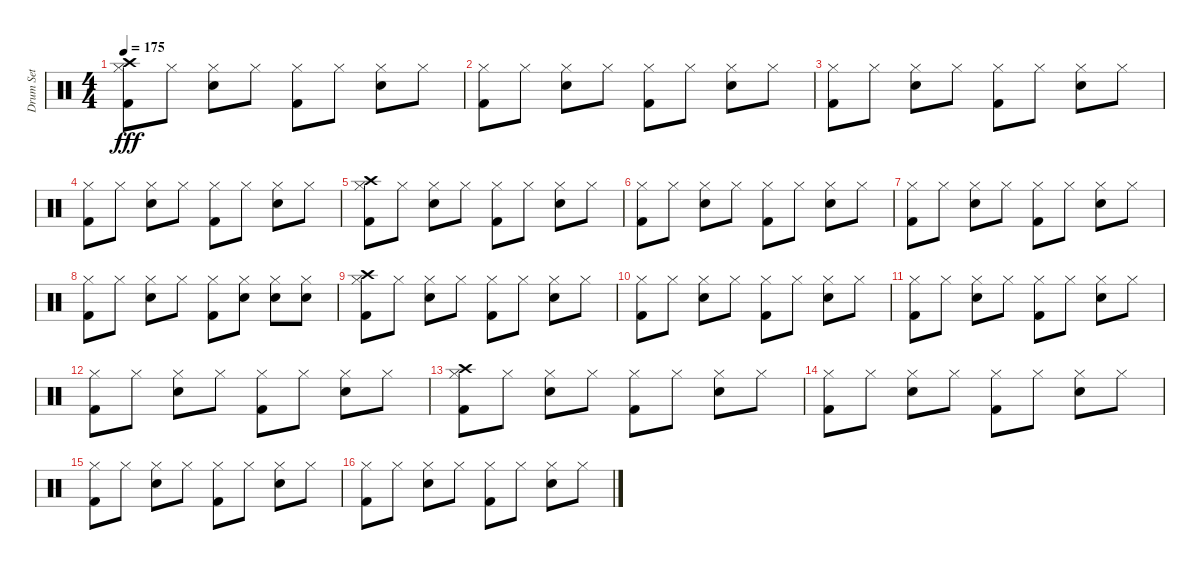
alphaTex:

\track ("Drum Set" "Drum Set") {instrument percussion}
\staff {score}
\articulation defaults
\ts (4 4)
\tempo 175
\clef neutral
\ks c
("Kick (hit) 2" "Hi-Hat (closed)" "Crash high (hit)").8{dy fff} "Hi-Hat (closed)".8 ("Electric Snare (hit)" "Hi-Hat (closed)").8 "Hi-Hat (closed)".8 ("Kick (hit) 2" "Hi-Hat (closed)").8 "Hi-Hat (closed)".8 ("Electric Snare (hit)" "Hi-Hat (closed)").8 "Hi-Hat (closed)".8 |
("Kick (hit) 2" "Hi-Hat (closed)").8 "Hi-Hat (closed)".8 ("Electric Snare (hit)" "Hi-Hat (closed)").8 "Hi-Hat (closed)".8 ("Kick (hit) 2" "Hi-Hat (closed)").8 "Hi-Hat (closed)".8 ("Electric Snare (hit)" "Hi-Hat (closed)").8 "Hi-Hat (closed)".8 |
("Kick (hit) 2" "Hi-Hat (closed)").8 "Hi-Hat (closed)".8 ("Electric Snare (hit)" "Hi-Hat (closed)").8 "Hi-Hat (closed)".8 ("Kick (hit) 2" "Hi-Hat (closed)").8 "Hi-Hat (closed)".8 ("Electric Snare (hit)" "Hi-Hat (closed)").8 "Hi-Hat (closed)".8 |
("Kick (hit) 2" "Hi-Hat (closed)").8 "Hi-Hat (closed)".8 ("Electric Snare (hit)" "Hi-Hat (closed)").8 "Hi-Hat (closed)".8 ("Kick (hit) 2" "Hi-Hat (closed)").8 "Hi-Hat (closed)".8 ("Electric Snare (hit)" "Hi-Hat (closed)").8 "Hi-Hat (closed)".8 |
("Kick (hit) 2" "Crash high (hit)" "Hi-Hat (closed)").8 "Hi-Hat (closed)".8 ("Electric Snare (hit)" "Hi-Hat (closed)").8 "Hi-Hat (closed)".8 ("Kick (hit) 2" "Hi-Hat (closed)").8 "Hi-Hat (closed)".8 ("Electric Snare (hit)" "Hi-Hat (closed)").8 "Hi-Hat (closed)".8 |
("Kick (hit) 2" "Hi-Hat (closed)").8 "Hi-Hat (closed)".8 ("Electric Snare (hit)" "Hi-Hat (closed)").8 "Hi-Hat (closed)".8 ("Kick (hit) 2" "Hi-Hat (closed)").8 "Hi-Hat (closed)".8 ("Electric Snare (hit)" "Hi-Hat (closed)").8 "Hi-Hat (closed)".8 |
("Kick (hit) 2" "Hi-Hat (closed)").8 "Hi-Hat (closed)".8 ("Electric Snare (hit)" "Hi-Hat (closed)").8 "Hi-Hat (closed)".8 ("Kick (hit) 2" "Hi-Hat (closed)").8 "Hi-Hat (closed)".8 ("Electric Snare (hit)" "Hi-Hat (closed)").8 "Hi-Hat (closed)".8 |
("Kick (hit) 2" "Hi-Hat (closed)").8 "Hi-Hat (closed)".8 ("Electric Snare (hit)" "Hi-Hat (closed)").8 "Hi-Hat (closed)".8 ("Kick (hit) 2" "Hi-Hat (closed)").8 ("Electric Snare (hit)" "Hi-Hat (closed)").8 ("Electric Snare (hit)" "Hi-Hat (closed)").8 ("Electric Snare (hit)" "Hi-Hat (closed)").8 |
("Kick (hit) 2" "Crash high (hit)" "Hi-Hat (closed)").8 "Hi-Hat (closed)".8 ("Electric Snare (hit)" "Hi-Hat (closed)").8 "Hi-Hat (closed)".8 ("Kick (hit) 2" "Hi-Hat (closed)").8 "Hi-Hat (closed)".8 ("Electric Snare (hit)" "Hi-Hat (closed)").8 "Hi-Hat (closed)".8 |
("Kick (hit) 2" "Hi-Hat (closed)").8 "Hi-Hat (closed)".8 ("Electric Snare (hit)" "Hi-Hat (closed)").8 "Hi-Hat (closed)".8 ("Kick (hit) 2" "Hi-Hat (closed)").8 "Hi-Hat (closed)".8 ("Electric Snare (hit)" "Hi-Hat (closed)").8 "Hi-Hat (closed)".8 |
("Kick (hit) 2" "Hi-Hat (closed)").8 "Hi-Hat (closed)".8 ("Electric Snare (hit)" "Hi-Hat (closed)").8 "Hi-Hat (closed)".8 ("Kick (hit) 2" "Hi-Hat (closed)").8 "Hi-Hat (closed)".8 ("Electric Snare (hit)" "Hi-Hat (closed)").8 "Hi-Hat (closed)".8 |
("Kick (hit) 2" "Hi-Hat (closed)").8 "Hi-Hat (closed)".8 ("Electric Snare (hit)" "Hi-Hat (closed)").8 "Hi-Hat (closed)".8 ("Kick (hit) 2" "Hi-Hat (closed)").8 "Hi-Hat (closed)".8 ("Electric Snare (hit)" "Hi-Hat (closed)").8 "Hi-Hat (closed)".8 |
("Kick (hit) 2" "Hi-Hat (closed)" "Crash high (hit)").8 "Hi-Hat (closed)".8 ("Electric Snare (hit)" "Hi-Hat (closed)").8 "Hi-Hat (closed)".8 ("Kick (hit) 2" "Hi-Hat (closed)").8 "Hi-Hat (closed)".8 ("Electric Snare (hit)" "Hi-Hat (closed)").8 "Hi-Hat (closed)".8 |
("Kick (hit) 2" "Hi-Hat (closed)").8 "Hi-Hat (closed)".8 ("Electric Snare (hit)" "Hi-Hat (closed)").8 "Hi-Hat (closed)".8 ("Kick (hit) 2" "Hi-Hat (closed)").8 "Hi-Hat (closed)".8 ("Electric Snare (hit)" "Hi-Hat (closed)").8 "Hi-Hat (closed)".8 |
("Kick (hit) 2" "Hi-Hat (closed)").8 "Hi-Hat (closed)".8 ("Electric Snare (hit)" "Hi-Hat (closed)").8 "Hi-Hat (closed)".8 ("Kick (hit) 2" "Hi-Hat (closed)").8 "Hi-Hat (closed)".8 ("Electric Snare (hit)" "Hi-Hat (closed)").8 "Hi-Hat (closed)".8 |
("Kick (hit) 2" "Hi-Hat (closed)").8 "Hi-Hat (closed)".8 ("Electric Snare (hit)" "Hi-Hat (closed)").8 "Hi-Hat (closed)".8 ("Kick (hit) 2" "Hi-Hat (closed)").8 "Hi-Hat (closed)".8 ("Electric Snare (hit)" "Hi-Hat (closed)").8 "Hi-Hat (closed)".8
